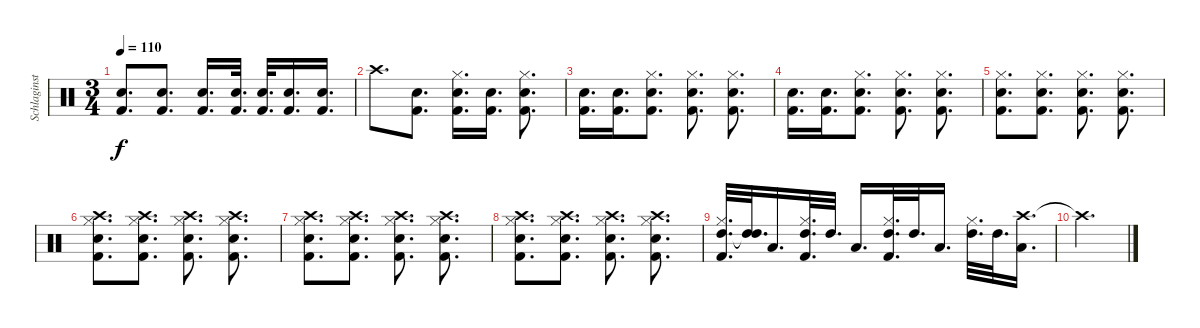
\track ("Schlaginstrumente - Auswahl" "Schlaginst") {instrument percussion}
\staff {score}
\articulation defaults
\ts (3 4)
\tempo 110
\clef neutral
\ks c
("Snare (hit) 2" "Kick (hit) 2").8{d dy f} ("Electric Snare (hit)" "Kick (hit) 2").8{d} ("Snare (hit) 2" "Kick (hit) 2").16{d} ("Electric Snare (hit)" "Kick (hit) 2").32{d} ("Electric Snare (hit)" "Kick (hit) 2").32{d} ("Snare (hit) 2" "Kick (hit) 2").16{d} ("Electric Snare (hit)" "Kick (hit) 2").16{d} |
"Crash high (hit)".8{d} ("Snare (hit) 2" "Kick (hit) 2").8{d} ("Hi-Hat (closed)" "Electric Snare (hit)" "Kick (hit) 2").16{d} ("Electric Snare (hit)" "Kick (hit) 2").16{d} ("Hi-Hat (closed)" "Snare (hit) 2" "Kick (hit) 2").8{d} |
("Electric Snare (hit)" "Kick (hit) 2").16{d} ("Electric Snare (hit)" "Kick (hit) 2").16{d} ("Hi-Hat (closed)" "Snare (hit) 2" "Kick (hit) 2").8{d} ("Hi-Hat (closed)" "Electric Snare (hit)" "Kick (hit) 2").8{d} ("Hi-Hat (closed)" "Snare (hit) 2" "Kick (hit) 2").8{d} |
("Electric Snare (hit)" "Kick (hit) 2").16{d} ("Electric Snare (hit)" "Kick (hit) 2").16{d} ("Hi-Hat (closed)" "Snare (hit) 2" "Kick (hit) 2").8{d} ("Hi-Hat (closed)" "Electric Snare (hit)" "Kick (hit) 2").8{d} ("Hi-Hat (closed)" "Snare (hit) 2" "Kick (hit) 2").8{d} |
("Hi-Hat (closed)" "Electric Snare (hit)" "Kick (hit) 2").8{d} ("Hi-Hat (closed)" "Snare (hit) 2" "Kick (hit) 2").8{d} ("Hi-Hat (closed)" "Electric Snare (hit)" "Kick (hit) 2").8{d} ("Hi-Hat (closed)" "Snare (hit) 2" "Kick (hit) 2").8{d} |
("Hi-Hat (closed)" "Crash high (hit)" "Electric Snare (hit)" "Kick (hit) 2").8{d} ("Hi-Hat (closed)" "Crash high (hit)" "Snare (hit) 2" "Kick (hit) 2").8{d} ("Hi-Hat (closed)" "Crash high (hit)" "Electric Snare (hit)" "Kick (hit) 2").8{d} ("Hi-Hat (closed)" "Crash high (hit)" "Snare (hit) 2" "Kick (hit) 2").8{d} |
("Hi-Hat (closed)" "Crash high (hit)" "Electric Snare (hit)" "Kick (hit) 2").8{d} ("Hi-Hat (closed)" "Crash high (hit)" "Snare (hit) 2" "Kick (hit) 2").8{d} ("Hi-Hat (closed)" "Crash high (hit)" "Electric Snare (hit)" "Kick (hit) 2").8{d} ("Hi-Hat (closed)" "Crash high (hit)" "Snare (hit) 2" "Kick (hit) 2").8{d} |
("Hi-Hat (closed)" "Crash high (hit)" "Electric Snare (hit)" "Kick (hit) 2").8{d} ("Hi-Hat (closed)" "Crash high (hit)" "Snare (hit) 2" "Kick (hit) 2").8{d} ("Hi-Hat (closed)" "Crash high (hit)" "Electric Snare (hit)" "Kick (hit) 2").8{d} ("Hi-Hat (closed)" "Crash high (hit)" "Snare (hit) 2" "Kick (hit) 2").8{d} |
("Hi-Hat (closed)" "High Tom (hit)" "Kick (hit) 2").32{d} ("High Tom (hit)" "High Tom (hit)"{t}).32{d} "Low Tom (hit)".16{d} ("Hi-Hat (closed)" "High Tom (hit)" "Kick (hit) 2").32{d} "High Tom (hit)".32{d} "Low Tom (hit)".16{d} ("Hi-Hat (closed)" "High Tom (hit)" "Kick (hit) 2").32{d} "High Tom (hit)".32{d} "Low Tom (hit)".16{d} ("Hi-Hat (closed)" "High Tom (hit)").32{d} "High Tom (hit)".32{d} ("Crash high (hit)" "Low Tom (hit)").16{d} |
"Crash high (hit)"{t}.2{d}
